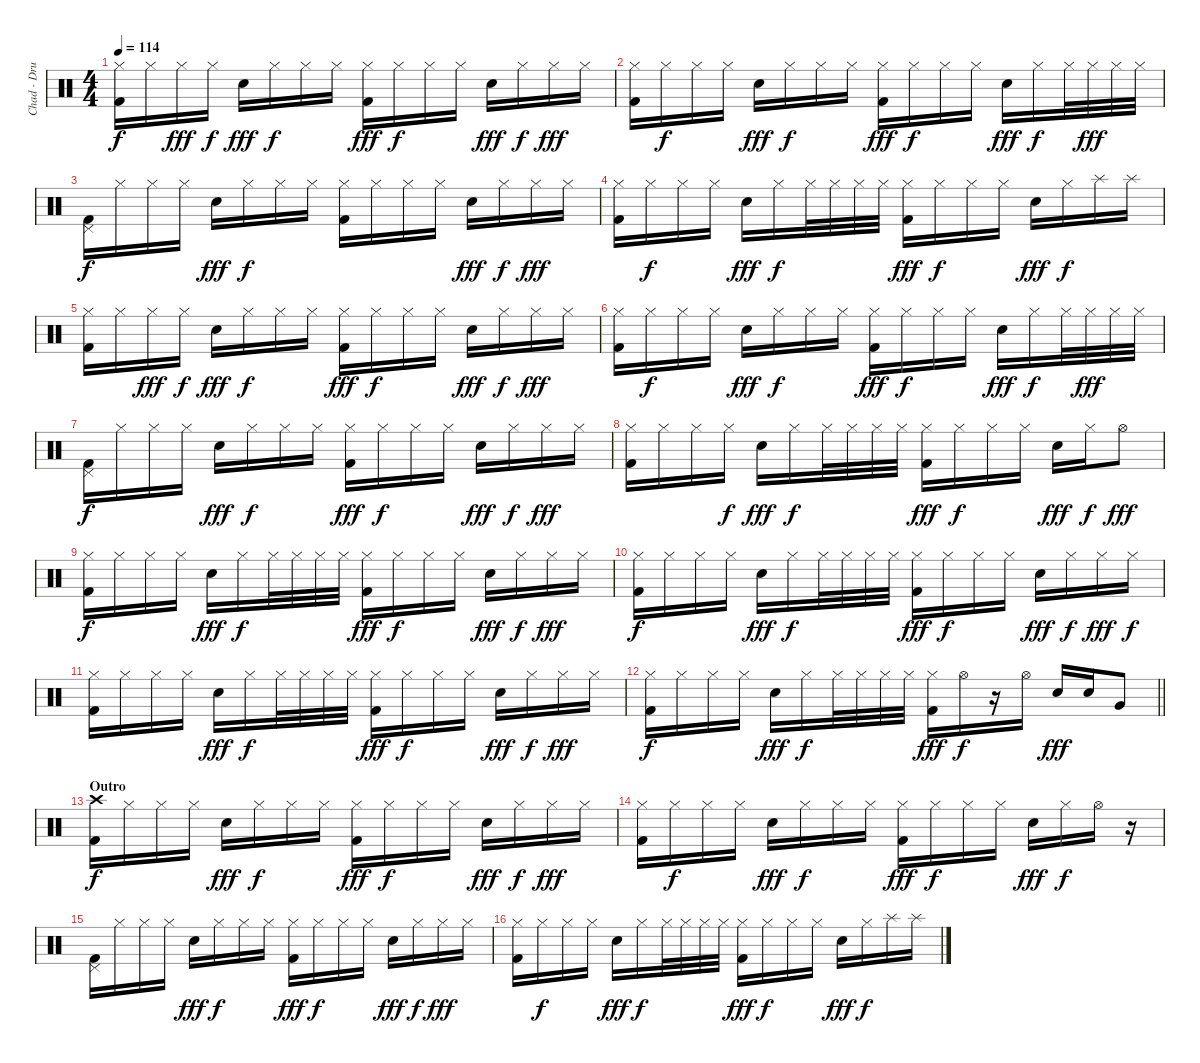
\track ("Chad - Drums" "Chad - Dru") {instrument percussion}
\staff {score}
\articulation defaults
\ts (4 4)
\tempo 114
\clef neutral
\ks c
("Hi-Hat (closed)" "Kick (hit) 2").16{dy f} "Hi-Hat (closed)".16 "Hi-Hat (closed)".16{dy fff} "Hi-Hat (closed)".16{dy f} "Electric Snare (hit)".16{dy fff} "Hi-Hat (closed)".16{dy f} "Hi-Hat (closed)".16 "Hi-Hat (closed)".16 ("Hi-Hat (closed)" "Kick (hit) 2").16{dy fff} "Hi-Hat (closed)".16{dy f} "Hi-Hat (closed)".16 "Hi-Hat (closed)".16 "Electric Snare (hit)".16{dy fff} "Hi-Hat (closed)".16{dy f} "Hi-Hat (closed)".16{dy fff} "Hi-Hat (closed)".16 |
("Hi-Hat (closed)" "Kick (hit) 2").16 "Hi-Hat (closed)".16{dy f} "Hi-Hat (closed)".16 "Hi-Hat (closed)".16 "Electric Snare (hit)".16{dy fff} "Hi-Hat (closed)".16{dy f} "Hi-Hat (closed)".16 "Hi-Hat (closed)".16 ("Hi-Hat (closed)" "Kick (hit) 2").16{dy fff} "Hi-Hat (closed)".16{dy f} "Hi-Hat (closed)".16 "Hi-Hat (closed)".16 "Electric Snare (hit)".16{dy fff} "Hi-Hat (closed)".16{dy f} "Hi-Hat (closed)".32 "Hi-Hat (closed)".32{dy fff} "Hi-Hat (closed)".32 "Hi-Hat (closed)".32 |
("Pedal Hi-Hat (hit)" "Kick (hit) 2").16{dy f} "Hi-Hat (closed)".16 "Hi-Hat (closed)".16 "Hi-Hat (closed)".16 "Electric Snare (hit)".16{dy fff} "Hi-Hat (closed)".16{dy f} "Hi-Hat (closed)".16 "Hi-Hat (closed)".16 ("Hi-Hat (closed)" "Kick (hit) 2").16 "Hi-Hat (closed)".16 "Hi-Hat (closed)".16 "Hi-Hat (closed)".16 "Electric Snare (hit)".16{dy fff} "Hi-Hat (closed)".16{dy f} "Hi-Hat (closed)".16{dy fff} "Hi-Hat (closed)".16 |
("Hi-Hat (closed)" "Kick (hit) 2").16 "Hi-Hat (closed)".16{dy f} "Hi-Hat (closed)".16 "Hi-Hat (closed)".16 "Electric Snare (hit)".16{dy fff} "Hi-Hat (closed)".16{dy f} "Hi-Hat (closed)".32 "Hi-Hat (closed)".32 "Hi-Hat (closed)".32 "Hi-Hat (closed)".32 ("Hi-Hat (closed)" "Kick (hit) 2").16{dy fff} "Hi-Hat (closed)".16{dy f} "Hi-Hat (closed)".16 "Hi-Hat (closed)".16 "Electric Snare (hit)".16{dy fff} "Hi-Hat (closed)".16{dy f} "Splash (hit)".16 "Splash (hit)".16 |
("Hi-Hat (closed)" "Kick (hit) 2").16 "Hi-Hat (closed)".16 "Hi-Hat (closed)".16{dy fff} "Hi-Hat (closed)".16{dy f} "Electric Snare (hit)".16{dy fff} "Hi-Hat (closed)".16{dy f} "Hi-Hat (closed)".16 "Hi-Hat (closed)".16 ("Hi-Hat (closed)" "Kick (hit) 2").16{dy fff} "Hi-Hat (closed)".16{dy f} "Hi-Hat (closed)".16 "Hi-Hat (closed)".16 "Electric Snare (hit)".16{dy fff} "Hi-Hat (closed)".16{dy f} "Hi-Hat (closed)".16{dy fff} "Hi-Hat (closed)".16 |
("Hi-Hat (closed)" "Kick (hit) 2").16 "Hi-Hat (closed)".16{dy f} "Hi-Hat (closed)".16 "Hi-Hat (closed)".16 "Electric Snare (hit)".16{dy fff} "Hi-Hat (closed)".16{dy f} "Hi-Hat (closed)".16 "Hi-Hat (closed)".16 ("Hi-Hat (closed)" "Kick (hit) 2").16{dy fff} "Hi-Hat (closed)".16{dy f} "Hi-Hat (closed)".16 "Hi-Hat (closed)".16 "Electric Snare (hit)".16{dy fff} "Hi-Hat (closed)".16{dy f} "Hi-Hat (closed)".32 "Hi-Hat (closed)".32{dy fff} "Hi-Hat (closed)".32 "Hi-Hat (closed)".32 |
("Pedal Hi-Hat (hit)" "Kick (hit) 2").16{dy f} "Hi-Hat (closed)".16 "Hi-Hat (closed)".16 "Hi-Hat (closed)".16 "Electric Snare (hit)".16{dy fff} "Hi-Hat (closed)".16{dy f} "Hi-Hat (closed)".16 "Hi-Hat (closed)".16 ("Hi-Hat (closed)" "Kick (hit) 2").16{dy fff} "Hi-Hat (closed)".16{dy f} "Hi-Hat (closed)".16 "Hi-Hat (closed)".16 "Electric Snare (hit)".16{dy fff} "Hi-Hat (closed)".16{dy f} "Hi-Hat (closed)".16{dy fff} "Hi-Hat (closed)".16 |
("Hi-Hat (closed)" "Kick (hit) 2").16 "Hi-Hat (closed)".16 "Hi-Hat (closed)".16 "Hi-Hat (closed)".16{dy f} "Electric Snare (hit)".16{dy fff} "Hi-Hat (closed)".16{dy f} "Hi-Hat (closed)".32 "Hi-Hat (closed)".32 "Hi-Hat (closed)".32 "Hi-Hat (closed)".32 ("Hi-Hat (closed)" "Kick (hit) 2").16{dy fff} "Hi-Hat (closed)".16{dy f} "Hi-Hat (closed)".16 "Hi-Hat (closed)".16 "Electric Snare (hit)".16{dy fff} "Hi-Hat (closed)".16{dy f} "Hi-Hat (open)".8{dy fff} |
("Hi-Hat (closed)" "Kick (hit) 2").16{dy f} "Hi-Hat (closed)".16 "Hi-Hat (closed)".16 "Hi-Hat (closed)".16 "Electric Snare (hit)".16{dy fff} "Hi-Hat (closed)".16{dy f} "Hi-Hat (closed)".32 "Hi-Hat (closed)".32 "Hi-Hat (closed)".32 "Hi-Hat (closed)".32 ("Hi-Hat (closed)" "Kick (hit) 2").16{dy fff} "Hi-Hat (closed)".16{dy f} "Hi-Hat (closed)".16 "Hi-Hat (closed)".16 "Electric Snare (hit)".16{dy fff} "Hi-Hat (closed)".16{dy f} "Hi-Hat (closed)".16{dy fff} "Hi-Hat (closed)".16 |
("Hi-Hat (closed)" "Kick (hit) 2").16{dy f} "Hi-Hat (closed)".16 "Hi-Hat (closed)".16 "Hi-Hat (closed)".16 "Electric Snare (hit)".16{dy fff} "Hi-Hat (closed)".16{dy f} "Hi-Hat (closed)".32 "Hi-Hat (closed)".32 "Hi-Hat (closed)".32 "Hi-Hat (closed)".32 ("Hi-Hat (closed)" "Kick (hit) 2").16{dy fff} "Hi-Hat (closed)".16{dy f} "Hi-Hat (closed)".16 "Hi-Hat (closed)".16 "Electric Snare (hit)".16{dy fff} "Hi-Hat (closed)".16{dy f} "Hi-Hat (closed)".16{dy fff} "Hi-Hat (closed)".16{dy f} |
("Hi-Hat (closed)" "Kick (hit) 2").16 "Hi-Hat (closed)".16 "Hi-Hat (closed)".16 "Hi-Hat (closed)".16 "Electric Snare (hit)".16{dy fff} "Hi-Hat (closed)".16{dy f} "Hi-Hat (closed)".32 "Hi-Hat (closed)".32 "Hi-Hat (closed)".32 "Hi-Hat (closed)".32 ("Hi-Hat (closed)" "Kick (hit) 2").16{dy fff} "Hi-Hat (closed)".16{dy f} "Hi-Hat (closed)".16 "Hi-Hat (closed)".16 "Electric Snare (hit)".16{dy fff} "Hi-Hat (closed)".16{dy f} "Hi-Hat (closed)".16{dy fff} "Hi-Hat (closed)".16 |
\barLineRight lightlight
("Hi-Hat (closed)" "Kick (hit) 2").16{dy f} "Hi-Hat (closed)".16 "Hi-Hat (closed)".16 "Hi-Hat (closed)".16 "Electric Snare (hit)".16{dy fff} "Hi-Hat (closed)".16{dy f} "Hi-Hat (closed)".32 "Hi-Hat (closed)".32 "Hi-Hat (closed)".32 "Hi-Hat (closed)".32 ("Hi-Hat (closed)" "Kick (hit) 2").16{dy fff} "Hi-Hat (open)".16{dy f} r.16 "Hi-Hat (open)".16 "Electric Snare (hit)".16{dy fff} "Electric Snare (hit)".16 "Very Low Tom (hit)".8 |
\section ("" "Outro")
("Crash high (hit)" "Kick (hit) 2").16{dy f} "Hi-Hat (closed)".16 "Hi-Hat (closed)".16 "Hi-Hat (closed)".16 "Electric Snare (hit)".16{dy fff} "Hi-Hat (closed)".16{dy f} "Hi-Hat (closed)".16 "Hi-Hat (closed)".16 ("Hi-Hat (closed)" "Kick (hit) 2").16{dy fff} "Hi-Hat (closed)".16{dy f} "Hi-Hat (closed)".16 "Hi-Hat (closed)".16 "Electric Snare (hit)".16{dy fff} "Hi-Hat (closed)".16{dy f} "Hi-Hat (closed)".16{dy fff} "Hi-Hat (closed)".16 |
("Hi-Hat (closed)" "Kick (hit) 2").16 "Hi-Hat (closed)".16{dy f} "Hi-Hat (closed)".16 "Hi-Hat (closed)".16 "Electric Snare (hit)".16{dy fff} "Hi-Hat (closed)".16{dy f} "Hi-Hat (closed)".16 "Hi-Hat (closed)".16 ("Hi-Hat (closed)" "Kick (hit) 2").16{dy fff} "Hi-Hat (closed)".16{dy f} "Hi-Hat (closed)".16 "Hi-Hat (closed)".16 "Electric Snare (hit)".16{dy fff} "Hi-Hat (closed)".16{dy f} "Hi-Hat (open)".16 r.16 |
("Pedal Hi-Hat (hit)" "Kick (hit) 2").16 "Hi-Hat (closed)".16 "Hi-Hat (closed)".16 "Hi-Hat (closed)".16 "Electric Snare (hit)".16{dy fff} "Hi-Hat (closed)".16{dy f} "Hi-Hat (closed)".16 "Hi-Hat (closed)".16 ("Hi-Hat (closed)" "Kick (hit) 2").16{dy fff} "Hi-Hat (closed)".16{dy f} "Hi-Hat (closed)".16 "Hi-Hat (closed)".16 "Electric Snare (hit)".16{dy fff} "Hi-Hat (closed)".16{dy f} "Hi-Hat (closed)".16{dy fff} "Hi-Hat (closed)".16 |
("Hi-Hat (closed)" "Kick (hit) 2").16 "Hi-Hat (closed)".16{dy f} "Hi-Hat (closed)".16 "Hi-Hat (closed)".16 "Electric Snare (hit)".16{dy fff} "Hi-Hat (closed)".16{dy f} "Hi-Hat (closed)".32 "Hi-Hat (closed)".32 "Hi-Hat (closed)".32 "Hi-Hat (closed)".32 ("Hi-Hat (closed)" "Kick (hit) 2").16{dy fff} "Hi-Hat (closed)".16{dy f} "Hi-Hat (closed)".16 "Hi-Hat (closed)".16 "Electric Snare (hit)".16{dy fff} "Hi-Hat (closed)".16{dy f} "Splash (hit)".16 "Splash (hit)".16
